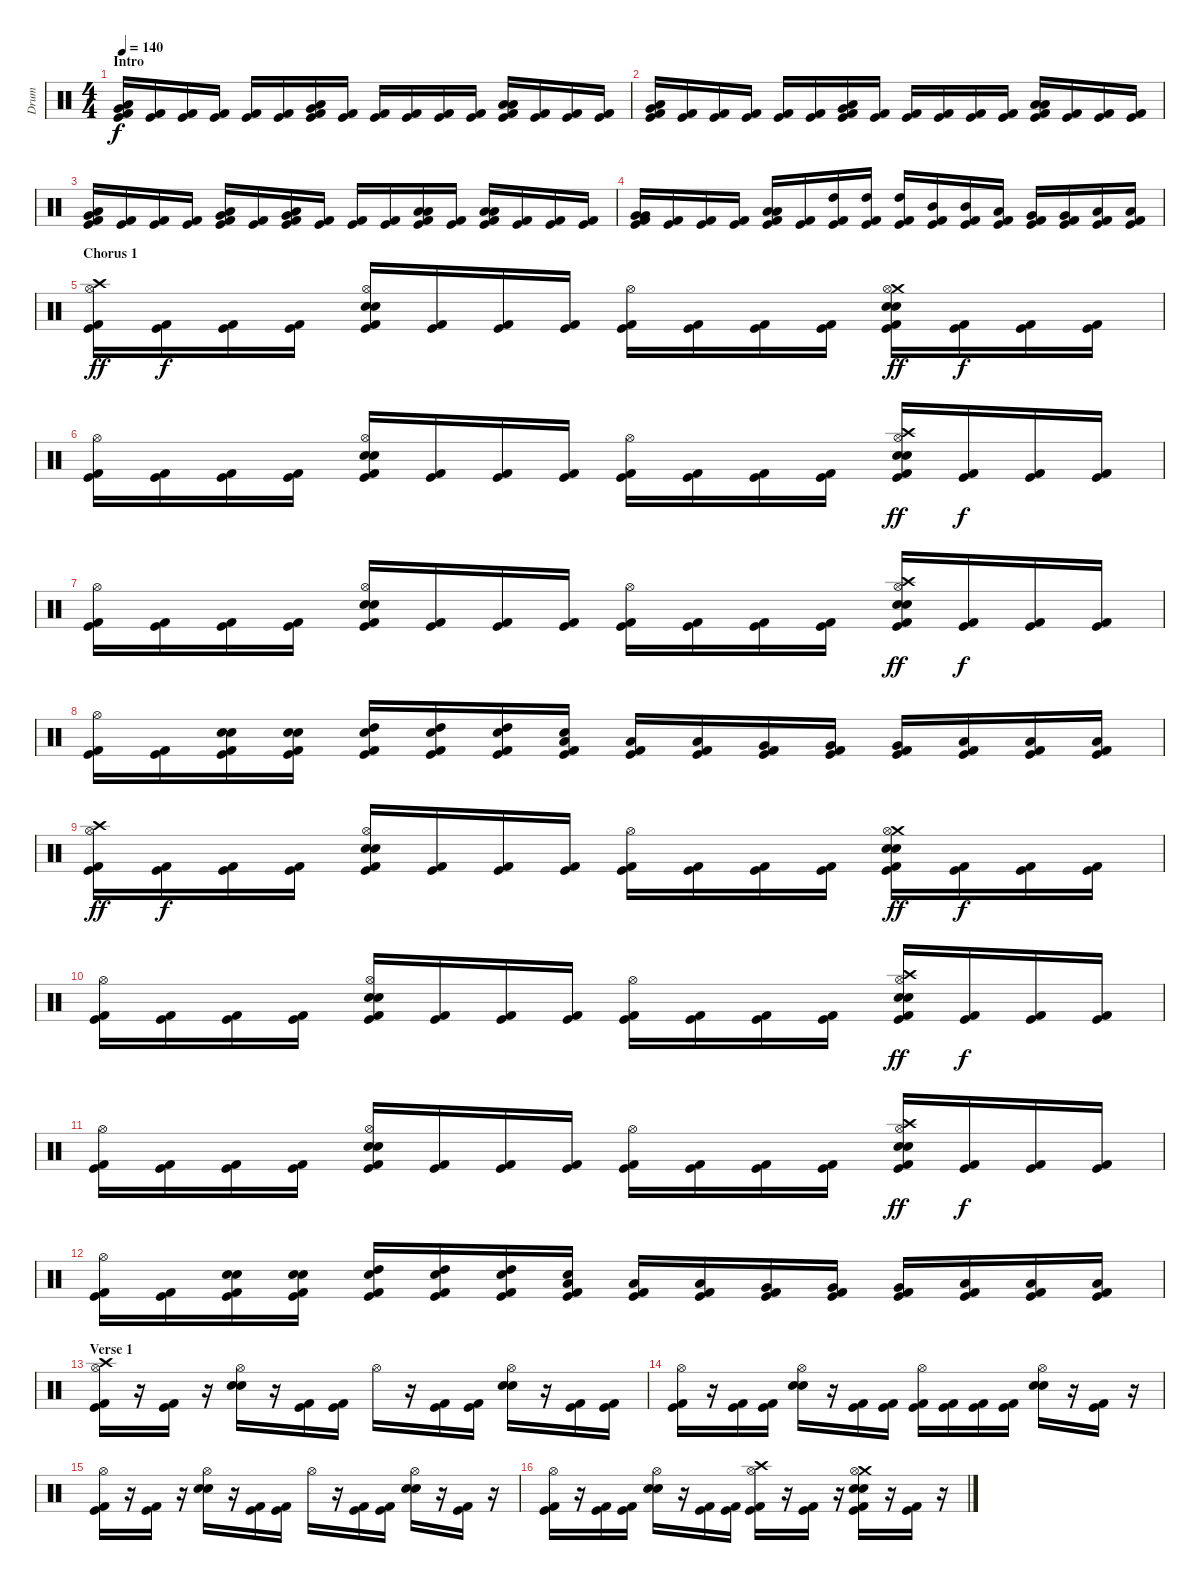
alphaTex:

\track ("Drum" "Drum") {instrument percussion}
\staff {score}
\articulation defaults
\ts (4 4)
\section ("" "Intro")
\tempo 140
\clef neutral
\ks c
("Very Low Tom (hit)" "Low Floor Tom (hit)" "Kick (hit)" "Kick (hit) 2").16{dy f} ("Kick (hit)" "Kick (hit) 2").16 ("Kick (hit)" "Kick (hit) 2").16 ("Kick (hit)" "Kick (hit) 2").16 ("Kick (hit)" "Kick (hit) 2").16 ("Kick (hit)" "Kick (hit) 2").16 ("Very Low Tom (hit)" "Low Floor Tom (hit)" "Kick (hit)" "Kick (hit) 2").16 ("Kick (hit)" "Kick (hit) 2").16 ("Kick (hit)" "Kick (hit) 2").16 ("Kick (hit)" "Kick (hit) 2").16 ("Kick (hit)" "Kick (hit) 2").16 ("Kick (hit)" "Kick (hit) 2").16 ("Low Floor Tom (hit)" "Low Floor Tom (hit)" "Kick (hit)" "Kick (hit) 2").16 ("Kick (hit)" "Kick (hit) 2").16 ("Kick (hit)" "Kick (hit) 2").16 ("Kick (hit)" "Kick (hit) 2").16 |
("Very Low Tom (hit)" "Low Floor Tom (hit)" "Kick (hit)" "Kick (hit) 2").16 ("Kick (hit)" "Kick (hit) 2").16 ("Kick (hit)" "Kick (hit) 2").16 ("Kick (hit)" "Kick (hit) 2").16 ("Kick (hit)" "Kick (hit) 2").16 ("Kick (hit)" "Kick (hit) 2").16 ("Very Low Tom (hit)" "Low Floor Tom (hit)" "Kick (hit)" "Kick (hit) 2").16 ("Kick (hit)" "Kick (hit) 2").16 ("Kick (hit)" "Kick (hit) 2").16 ("Kick (hit)" "Kick (hit) 2").16 ("Kick (hit)" "Kick (hit) 2").16 ("Kick (hit)" "Kick (hit) 2").16 ("Low Floor Tom (hit)" "Low Floor Tom (hit)" "Kick (hit)" "Kick (hit) 2").16 ("Kick (hit)" "Kick (hit) 2").16 ("Kick (hit)" "Kick (hit) 2").16 ("Kick (hit)" "Kick (hit) 2").16 |
("Very Low Tom (hit)" "Low Floor Tom (hit)" "Kick (hit)" "Kick (hit) 2").16 ("Kick (hit)" "Kick (hit) 2").16 ("Kick (hit)" "Kick (hit) 2").16 ("Kick (hit)" "Kick (hit) 2").16 ("Very Low Tom (hit)" "Low Floor Tom (hit)" "Kick (hit)" "Kick (hit) 2").16 ("Kick (hit)" "Kick (hit) 2").16 ("Very Low Tom (hit)" "Low Floor Tom (hit)" "Kick (hit)" "Kick (hit) 2").16 ("Kick (hit)" "Kick (hit) 2").16 ("Kick (hit)" "Kick (hit) 2").16 ("Kick (hit)" "Kick (hit) 2").16 ("Low Floor Tom (hit)" "Low Floor Tom (hit)" "Kick (hit)" "Kick (hit) 2").16 ("Kick (hit)" "Kick (hit) 2").16 ("Low Floor Tom (hit)" "Low Floor Tom (hit)" "Kick (hit)" "Kick (hit) 2").16 ("Kick (hit)" "Kick (hit) 2").16 ("Kick (hit)" "Kick (hit) 2").16 ("Kick (hit)" "Kick (hit) 2").16 |
("Very Low Tom (hit)" "Very Low Tom (hit)" "Kick (hit)" "Kick (hit) 2").16 ("Kick (hit)" "Kick (hit) 2").16 ("Kick (hit)" "Kick (hit) 2").16 ("Kick (hit)" "Kick (hit) 2").16 ("Low Floor Tom (hit)" "Low Floor Tom (hit)" "Kick (hit)" "Kick (hit) 2").16 ("Kick (hit)" "Kick (hit) 2").16 ("High Tom (hit)" "Kick (hit)" "Kick (hit) 2").16 ("High Tom (hit)" "Kick (hit)" "Kick (hit) 2").16 ("High Tom (hit)" "Kick (hit)" "Kick (hit) 2").16 ("Mid Tom (hit)" "Kick (hit)" "Kick (hit) 2").16 ("Mid Tom (hit)" "Kick (hit)" "Kick (hit) 2").16 ("Low Tom (hit)" "Kick (hit)" "Kick (hit) 2").16 ("Very Low Tom (hit)" "Kick (hit)" "Kick (hit) 2").16 ("Very Low Tom (hit)" "Kick (hit)" "Kick (hit) 2").16 ("Low Floor Tom (hit)" "Kick (hit)" "Kick (hit) 2").16 ("Low Floor Tom (hit)" "Kick (hit)" "Kick (hit) 2").16 |
\section ("" "Chorus 1")
("Crash high (hit)" "Hi-Hat (open)" "Kick (hit)" "Kick (hit) 2").16{dy ff} ("Kick (hit)" "Kick (hit) 2").16{dy f} ("Kick (hit)" "Kick (hit) 2").16 ("Kick (hit)" "Kick (hit) 2").16 ("Hi-Hat (open)" "Snare (hit) 2" "Electric Snare (hit)" "Kick (hit)" "Kick (hit) 2").16 ("Kick (hit)" "Kick (hit) 2").16 ("Kick (hit)" "Kick (hit) 2").16 ("Kick (hit)" "Kick (hit) 2").16 ("Hi-Hat (open)" "Kick (hit)" "Kick (hit) 2").16 ("Kick (hit)" "Kick (hit) 2").16 ("Kick (hit)" "Kick (hit) 2").16 ("Kick (hit)" "Kick (hit) 2").16 ("Crash medium (hit)" "Hi-Hat (open)" "Snare (hit) 2" "Electric Snare (hit)" "Kick (hit)" "Kick (hit) 2").16{dy ff} ("Kick (hit)" "Kick (hit) 2").16{dy f} ("Kick (hit)" "Kick (hit) 2").16 ("Kick (hit)" "Kick (hit) 2").16 |
("Hi-Hat (open)" "Kick (hit)" "Kick (hit) 2").16 ("Kick (hit)" "Kick (hit) 2").16 ("Kick (hit)" "Kick (hit) 2").16 ("Kick (hit)" "Kick (hit) 2").16 ("Hi-Hat (open)" "Snare (hit) 2" "Electric Snare (hit)" "Kick (hit)" "Kick (hit) 2").16 ("Kick (hit)" "Kick (hit) 2").16 ("Kick (hit)" "Kick (hit) 2").16 ("Kick (hit)" "Kick (hit) 2").16 ("Hi-Hat (open)" "Kick (hit)" "Kick (hit) 2").16 ("Kick (hit)" "Kick (hit) 2").16 ("Kick (hit)" "Kick (hit) 2").16 ("Kick (hit)" "Kick (hit) 2").16 ("Crash high (hit)" "Hi-Hat (open)" "Snare (hit) 2" "Electric Snare (hit)" "Kick (hit)" "Kick (hit) 2").16{dy ff} ("Kick (hit)" "Kick (hit) 2").16{dy f} ("Kick (hit)" "Kick (hit) 2").16 ("Kick (hit)" "Kick (hit) 2").16 |
("Hi-Hat (open)" "Kick (hit)" "Kick (hit) 2").16 ("Kick (hit)" "Kick (hit) 2").16 ("Kick (hit)" "Kick (hit) 2").16 ("Kick (hit)" "Kick (hit) 2").16 ("Hi-Hat (open)" "Snare (hit) 2" "Electric Snare (hit)" "Kick (hit)" "Kick (hit) 2").16 ("Kick (hit)" "Kick (hit) 2").16 ("Kick (hit)" "Kick (hit) 2").16 ("Kick (hit)" "Kick (hit) 2").16 ("Hi-Hat (open)" "Kick (hit)" "Kick (hit) 2").16 ("Kick (hit)" "Kick (hit) 2").16 ("Kick (hit)" "Kick (hit) 2").16 ("Kick (hit)" "Kick (hit) 2").16 ("Crash high (hit)" "Hi-Hat (open)" "Snare (hit) 2" "Electric Snare (hit)" "Kick (hit)" "Kick (hit) 2").16{dy ff} ("Kick (hit)" "Kick (hit) 2").16{dy f} ("Kick (hit)" "Kick (hit) 2").16 ("Kick (hit)" "Kick (hit) 2").16 |
("Hi-Hat (open)" "Kick (hit)" "Kick (hit) 2").16 ("Kick (hit)" "Kick (hit) 2").16 ("Snare (hit) 2" "Electric Snare (hit)" "Kick (hit)" "Kick (hit) 2").16 ("Snare (hit) 2" "Electric Snare (hit)" "Kick (hit)" "Kick (hit) 2").16 ("High Tom (hit)" "Electric Snare (hit)" "Kick (hit)" "Kick (hit) 2").16 ("High Tom (hit)" "Electric Snare (hit)" "Kick (hit)" "Kick (hit) 2").16 ("High Tom (hit)" "Electric Snare (hit)" "Kick (hit)" "Kick (hit) 2").16 ("Low Tom (hit)" "Electric Snare (hit)" "Kick (hit)" "Kick (hit) 2").16 ("Low Tom (hit)" "Kick (hit)" "Kick (hit) 2").16 ("Low Tom (hit)" "Kick (hit)" "Kick (hit) 2").16 ("Very Low Tom (hit)" "Kick (hit)" "Kick (hit) 2").16 ("Very Low Tom (hit)" "Kick (hit)" "Kick (hit) 2").16 ("Very Low Tom (hit)" "Kick (hit)" "Kick (hit) 2").16 ("Low Floor Tom (hit)" "Kick (hit)" "Kick (hit) 2").16 ("Low Floor Tom (hit)" "Kick (hit)" "Kick (hit) 2").16 ("Low Floor Tom (hit)" "Kick (hit)" "Kick (hit) 2").16 |
("Crash high (hit)" "Hi-Hat (open)" "Kick (hit)" "Kick (hit) 2").16{dy ff} ("Kick (hit)" "Kick (hit) 2").16{dy f} ("Kick (hit)" "Kick (hit) 2").16 ("Kick (hit)" "Kick (hit) 2").16 ("Hi-Hat (open)" "Snare (hit) 2" "Electric Snare (hit)" "Kick (hit)" "Kick (hit) 2").16 ("Kick (hit)" "Kick (hit) 2").16 ("Kick (hit)" "Kick (hit) 2").16 ("Kick (hit)" "Kick (hit) 2").16 ("Hi-Hat (open)" "Kick (hit)" "Kick (hit) 2").16 ("Kick (hit)" "Kick (hit) 2").16 ("Kick (hit)" "Kick (hit) 2").16 ("Kick (hit)" "Kick (hit) 2").16 ("Crash medium (hit)" "Hi-Hat (open)" "Snare (hit) 2" "Electric Snare (hit)" "Kick (hit)" "Kick (hit) 2").16{dy ff} ("Kick (hit)" "Kick (hit) 2").16{dy f} ("Kick (hit)" "Kick (hit) 2").16 ("Kick (hit)" "Kick (hit) 2").16 |
("Hi-Hat (open)" "Kick (hit)" "Kick (hit) 2").16 ("Kick (hit)" "Kick (hit) 2").16 ("Kick (hit)" "Kick (hit) 2").16 ("Kick (hit)" "Kick (hit) 2").16 ("Hi-Hat (open)" "Snare (hit) 2" "Electric Snare (hit)" "Kick (hit)" "Kick (hit) 2").16 ("Kick (hit)" "Kick (hit) 2").16 ("Kick (hit)" "Kick (hit) 2").16 ("Kick (hit)" "Kick (hit) 2").16 ("Hi-Hat (open)" "Kick (hit)" "Kick (hit) 2").16 ("Kick (hit)" "Kick (hit) 2").16 ("Kick (hit)" "Kick (hit) 2").16 ("Kick (hit)" "Kick (hit) 2").16 ("Crash high (hit)" "Hi-Hat (open)" "Snare (hit) 2" "Electric Snare (hit)" "Kick (hit)" "Kick (hit) 2").16{dy ff} ("Kick (hit)" "Kick (hit) 2").16{dy f} ("Kick (hit)" "Kick (hit) 2").16 ("Kick (hit)" "Kick (hit) 2").16 |
("Hi-Hat (open)" "Kick (hit)" "Kick (hit) 2").16 ("Kick (hit)" "Kick (hit) 2").16 ("Kick (hit)" "Kick (hit) 2").16 ("Kick (hit)" "Kick (hit) 2").16 ("Hi-Hat (open)" "Snare (hit) 2" "Electric Snare (hit)" "Kick (hit)" "Kick (hit) 2").16 ("Kick (hit)" "Kick (hit) 2").16 ("Kick (hit)" "Kick (hit) 2").16 ("Kick (hit)" "Kick (hit) 2").16 ("Hi-Hat (open)" "Kick (hit)" "Kick (hit) 2").16 ("Kick (hit)" "Kick (hit) 2").16 ("Kick (hit)" "Kick (hit) 2").16 ("Kick (hit)" "Kick (hit) 2").16 ("Crash high (hit)" "Hi-Hat (open)" "Snare (hit) 2" "Electric Snare (hit)" "Kick (hit)" "Kick (hit) 2").16{dy ff} ("Kick (hit)" "Kick (hit) 2").16{dy f} ("Kick (hit)" "Kick (hit) 2").16 ("Kick (hit)" "Kick (hit) 2").16 |
("Hi-Hat (open)" "Kick (hit)" "Kick (hit) 2").16 ("Kick (hit)" "Kick (hit) 2").16 ("Snare (hit) 2" "Electric Snare (hit)" "Kick (hit)" "Kick (hit) 2").16 ("Snare (hit) 2" "Electric Snare (hit)" "Kick (hit)" "Kick (hit) 2").16 ("High Tom (hit)" "Electric Snare (hit)" "Kick (hit)" "Kick (hit) 2").16 ("High Tom (hit)" "Electric Snare (hit)" "Kick (hit)" "Kick (hit) 2").16 ("High Tom (hit)" "Electric Snare (hit)" "Kick (hit)" "Kick (hit) 2").16 ("Low Tom (hit)" "Electric Snare (hit)" "Kick (hit)" "Kick (hit) 2").16 ("Low Tom (hit)" "Kick (hit)" "Kick (hit) 2").16 ("Low Tom (hit)" "Kick (hit)" "Kick (hit) 2").16 ("Very Low Tom (hit)" "Kick (hit)" "Kick (hit) 2").16 ("Very Low Tom (hit)" "Kick (hit)" "Kick (hit) 2").16 ("Very Low Tom (hit)" "Kick (hit)" "Kick (hit) 2").16 ("Low Floor Tom (hit)" "Kick (hit)" "Kick (hit) 2").16 ("Low Floor Tom (hit)" "Kick (hit)" "Kick (hit) 2").16 ("Low Floor Tom (hit)" "Kick (hit)" "Kick (hit) 2").16 |
\section ("" "Verse 1")
("Crash high (hit)" "Hi-Hat (open)" "Kick (hit)" "Kick (hit) 2").16 r.16 ("Kick (hit)" "Kick (hit) 2").16 r.16 ("Hi-Hat (open)" "Snare (hit) 2" "Electric Snare (hit)").16 r.16 ("Kick (hit)" "Kick (hit) 2").16 ("Kick (hit)" "Kick (hit) 2").16 "Hi-Hat (open)".16 r.16 ("Kick (hit)" "Kick (hit) 2").16 ("Kick (hit)" "Kick (hit) 2").16 ("Hi-Hat (open)" "Snare (hit) 2" "Electric Snare (hit)").16 r.16 ("Kick (hit)" "Kick (hit) 2").16 ("Kick (hit)" "Kick (hit) 2").16 |
("Hi-Hat (open)" "Kick (hit)" "Kick (hit) 2").16 r.16 ("Kick (hit)" "Kick (hit) 2").16 ("Kick (hit)" "Kick (hit) 2").16 ("Hi-Hat (open)" "Snare (hit) 2" "Electric Snare (hit)").16 r.16 ("Kick (hit)" "Kick (hit) 2").16 ("Kick (hit)" "Kick (hit) 2").16 ("Hi-Hat (open)" "Kick (hit)" "Kick (hit) 2").16 ("Kick (hit)" "Kick (hit) 2").16 ("Kick (hit)" "Kick (hit) 2").16 ("Kick (hit)" "Kick (hit) 2").16 ("Hi-Hat (open)" "Snare (hit) 2" "Electric Snare (hit)").16 r.16 ("Kick (hit)" "Kick (hit) 2").16 r.16 |
("Hi-Hat (open)" "Kick (hit)" "Kick (hit) 2").16 r.16 ("Kick (hit)" "Kick (hit) 2").16 r.16 ("Hi-Hat (open)" "Snare (hit) 2" "Electric Snare (hit)").16 r.16 ("Kick (hit)" "Kick (hit) 2").16 ("Kick (hit)" "Kick (hit) 2").16 "Hi-Hat (open)".16 r.16 ("Kick (hit)" "Kick (hit) 2").16 ("Kick (hit)" "Kick (hit) 2").16 ("Hi-Hat (open)" "Snare (hit) 2" "Electric Snare (hit)").16 r.16 ("Kick (hit)" "Kick (hit) 2").16 r.16 |
("Hi-Hat (open)" "Kick (hit)" "Kick (hit) 2").16 r.16 ("Kick (hit)" "Kick (hit) 2").16 ("Kick (hit)" "Kick (hit) 2").16 ("Hi-Hat (open)" "Snare (hit) 2" "Electric Snare (hit)").16 r.16 ("Kick (hit)" "Kick (hit) 2").16 ("Kick (hit)" "Kick (hit) 2").16 ("Crash high (hit)" "Hi-Hat (open)" "Kick (hit)" "Kick (hit) 2").16 r.16 ("Kick (hit)" "Kick (hit) 2").16 r.16 ("Crash medium (hit)" "Hi-Hat (open)" "Snare (hit) 2" "Electric Snare (hit)" "Kick (hit)" "Kick (hit) 2").16 r.16 ("Kick (hit)" "Kick (hit) 2").16 r.16
